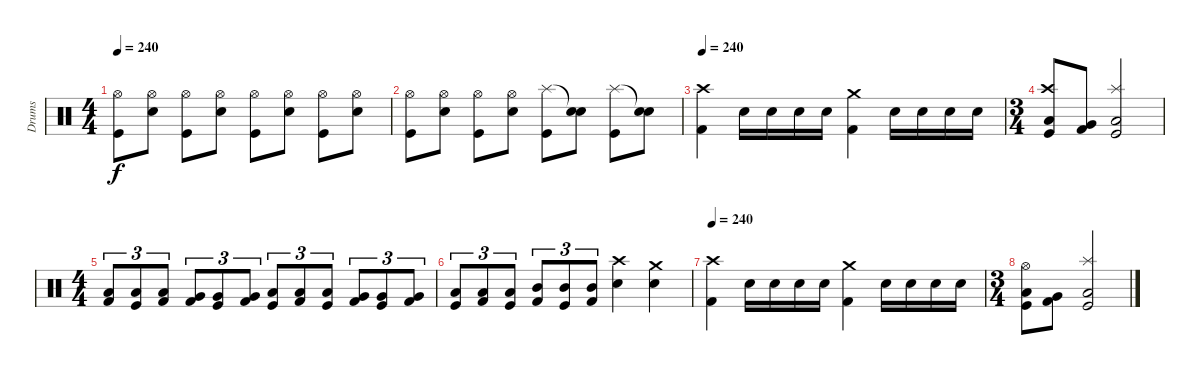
\track ("Drums" "Drums") {instrument percussion}
\staff {score}
\articulation defaults
\ts (4 4)
\tempo 240
\clef neutral
\ks c
("Hi-Hat (open)" "Kick (hit)").8{dy f} ("Hi-Hat (open)" "Electric Snare (hit)").8 ("Hi-Hat (open)" "Kick (hit)").8 ("Hi-Hat (open)" "Electric Snare (hit)").8 ("Hi-Hat (open)" "Kick (hit)").8 ("Hi-Hat (open)" "Electric Snare (hit)").8 ("Hi-Hat (open)" "Kick (hit)").8 ("Hi-Hat (open)" "Electric Snare (hit)").8 |
("Hi-Hat (open)" "Kick (hit)").8 ("Hi-Hat (open)" "Electric Snare (hit)").8 ("Hi-Hat (open)" "Kick (hit)").8 ("Hi-Hat (open)" "Electric Snare (hit)").8 ("Splash (hit)" "Kick (hit)").8 ("Snare (hit)"{t} "Electric Snare (hit)").8 ("Splash (hit)" "Kick (hit)").8 ("Snare (hit)"{t} "Electric Snare (hit)").8 |
\tempo 240
("Crash high (hit)" "Kick (hit) 2").4 "Electric Snare (hit)".16 "Electric Snare (hit)".16 "Electric Snare (hit)".16 "Electric Snare (hit)".16 ("Crash medium (hit)" "Kick (hit) 2").4 "Electric Snare (hit)".16 "Electric Snare (hit)".16 "Electric Snare (hit)".16 "Electric Snare (hit)".16 |
\ts (3 4)
("Crash high (hit)" "Low Floor Tom (hit)" "Kick (hit)").8 ("Very Low Tom (hit)" "Kick (hit) 2").8 ("Splash (hit)" "Low Floor Tom (hit)" "Kick (hit)").2 |
\ts (4 4)
("Low Floor Tom (hit)" "Kick (hit) 2").8{tu (3 2)} ("Low Floor Tom (hit)" "Kick (hit)").8{tu (3 2)} ("Low Floor Tom (hit)" "Kick (hit) 2").8{tu (3 2)} ("Very Low Tom (hit)" "Kick (hit) 2").8{tu (3 2)} ("Very Low Tom (hit)" "Kick (hit)").8{tu (3 2)} ("Very Low Tom (hit)" "Kick (hit) 2").8{tu (3 2)} ("Low Floor Tom (hit)" "Kick (hit)").8{tu (3 2)} ("Low Floor Tom (hit)" "Kick (hit) 2").8{tu (3 2)} ("Low Floor Tom (hit)" "Kick (hit)").8{tu (3 2)} ("Very Low Tom (hit)" "Kick (hit) 2").8{tu (3 2)} ("Very Low Tom (hit)" "Kick (hit)").8{tu (3 2)} ("Very Low Tom (hit)" "Kick (hit) 2").8{tu (3 2)} |
("Low Tom (hit)" "Kick (hit)").8{tu (3 2)} ("Low Tom (hit)" "Kick (hit) 2").8{tu (3 2)} ("Low Tom (hit)" "Kick (hit)").8{tu (3 2)} ("Mid Tom (hit)" "Kick (hit) 2").8{tu (3 2)} ("Mid Tom (hit)" "Kick (hit)").8{tu (3 2)} ("Mid Tom (hit)" "Kick (hit) 2").8{tu (3 2)} ("Crash high (hit)" "Electric Snare (hit)").4 ("Crash medium (hit)" "Electric Snare (hit)").4 |
\tempo 240
("Crash high (hit)" "Kick (hit) 2").4 "Electric Snare (hit)".16 "Electric Snare (hit)".16 "Electric Snare (hit)".16 "Electric Snare (hit)".16 ("Crash medium (hit)" "Kick (hit) 2").4 "Electric Snare (hit)".16 "Electric Snare (hit)".16 "Electric Snare (hit)".16 "Electric Snare (hit)".16 |
\ts (3 4)
("Hi-Hat (open)" "Low Floor Tom (hit)" "Kick (hit)").8 ("Very Low Tom (hit)" "Kick (hit) 2").8 ("Splash (hit)" "Low Floor Tom (hit)" "Kick (hit)").2
